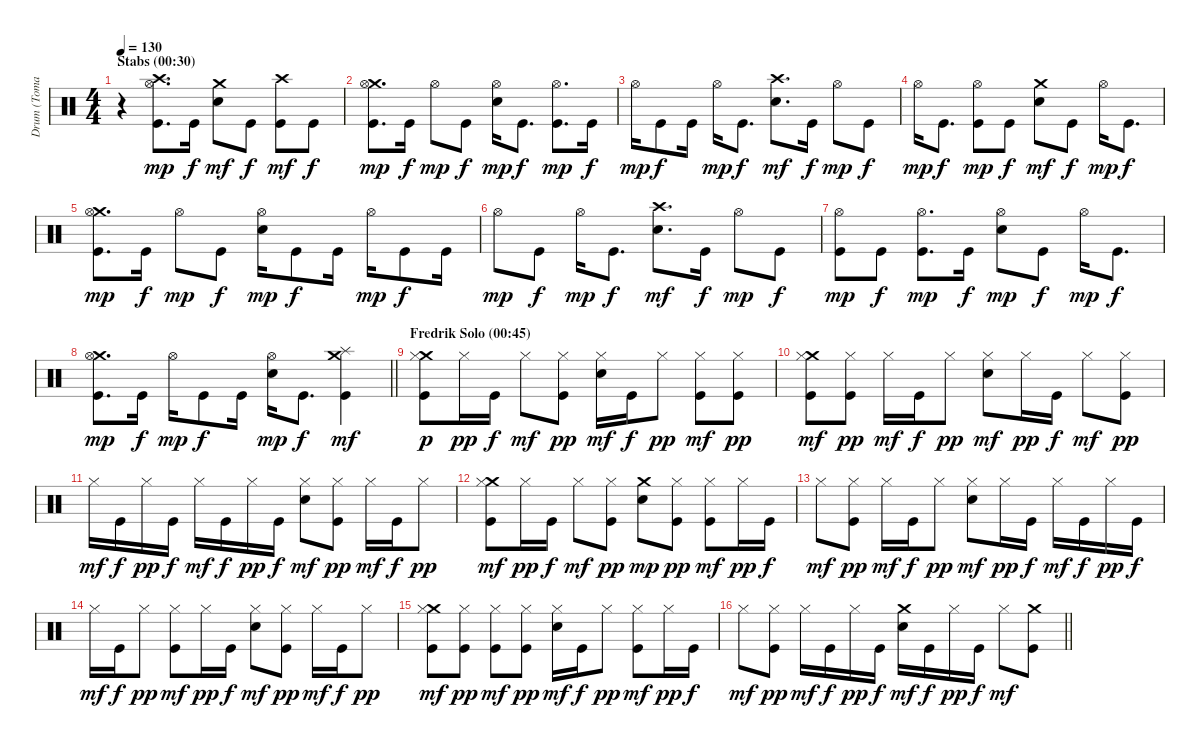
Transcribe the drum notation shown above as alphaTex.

\track ("Drum (Tomas Haake)" "Drum (Toma") {instrument percussion}
\staff {score}
\articulation defaults
\ts (4 4)
\section ("" "Stabs (00:30)")
\tempo 130
\clef neutral
\ks c
r.4{dy p} ("Crash high (hit)" "Hi-Hat (open)" "Kick (hit)").8{d dy mp} "Kick (hit)".16{dy f} ("Crash medium (hit)" "Electric Snare (hit)").8{dy mf} "Kick (hit)".8{dy f} ("Crash high (hit)" "Kick (hit)").8{dy mf} "Kick (hit)".8{dy f} |
("Crash medium (hit)" "Hi-Hat (open)" "Kick (hit)").8{d dy mp} "Kick (hit)".16{dy f} "Hi-Hat (open)".8{dy mp} "Kick (hit)".8{dy f} ("Hi-Hat (open)" "Electric Snare (hit)").16{dy mp} "Kick (hit)".8{d dy f} ("Hi-Hat (open)" "Kick (hit)").8{d dy mp} "Kick (hit)".16{dy f} |
"Hi-Hat (open)".16{dy mp} "Kick (hit)".8{dy f} "Kick (hit)".16 "Hi-Hat (open)".16{dy mp} "Kick (hit)".8{d dy f} ("Crash high (hit)" "Electric Snare (hit)").8{d dy mf} "Kick (hit)".16{dy f} "Hi-Hat (open)".8{dy mp} "Kick (hit)".8{dy f} |
"Hi-Hat (open)".16{dy mp} "Kick (hit)".8{d dy f} ("Hi-Hat (open)" "Kick (hit)").8{dy mp} "Kick (hit)".8{dy f} ("Crash medium (hit)" "Electric Snare (hit)").8{dy mf} "Kick (hit)".8{dy f} "Hi-Hat (open)".16{dy mp} "Kick (hit)".8{d dy f} |
("Crash medium (hit)" "Hi-Hat (open)" "Kick (hit)").8{d dy mp} "Kick (hit)".16{dy f} "Hi-Hat (open)".8{dy mp} "Kick (hit)".8{dy f} ("Hi-Hat (open)" "Electric Snare (hit)").16{dy mp} "Kick (hit)".8{dy f} "Kick (hit)".16 "Hi-Hat (open)".16{dy mp} "Kick (hit)".8{dy f} "Kick (hit)".16 |
"Hi-Hat (open)".8{dy mp} "Kick (hit)".8{dy f} "Hi-Hat (open)".16{dy mp} "Kick (hit)".8{d dy f} ("Crash high (hit)" "Electric Snare (hit)").8{d dy mf} "Kick (hit)".16{dy f} "Hi-Hat (open)".8{dy mp} "Kick (hit)".8{dy f} |
("Hi-Hat (open)" "Kick (hit)").8{dy mp} "Kick (hit)".8{dy f} ("Hi-Hat (open)" "Kick (hit)").8{d dy mp} "Kick (hit)".16{dy f} ("Hi-Hat (open)" "Electric Snare (hit)").8{dy mp} "Kick (hit)".8{dy f} "Hi-Hat (open)".16{dy mp} "Kick (hit)".8{d dy f} |
\barLineRight lightlight
("Crash medium (hit)" "Hi-Hat (open)" "Kick (hit)").8{d dy mp} "Kick (hit)".16{dy f} "Hi-Hat (open)".16{dy mp} "Kick (hit)".8{dy f} "Kick (hit)".16 ("Hi-Hat (open)" "Electric Snare (hit)").16{dy mp} "Kick (hit)".8{d dy f} ("Crash medium (hit)" "Splash (hit)" "Kick (hit)").4{dy mf} |
\section ("" "Fredrik Solo (00:45)")
("Crash medium (hit)" "Hi-Hat (closed)" "Kick (hit)").8{dy p} "Hi-Hat (closed)".16{dy pp} "Kick (hit)".16{dy f} "Hi-Hat (closed)".8{dy mf} ("Hi-Hat (closed)" "Kick (hit)").8{dy pp} ("Hi-Hat (closed)" "Electric Snare (hit)").16{dy mf} "Kick (hit)".16{dy f} "Hi-Hat (closed)".8{dy pp} ("Hi-Hat (closed)" "Kick (hit)").8{dy mf} ("Hi-Hat (closed)" "Kick (hit)").8{dy pp} |
("Crash medium (hit)" "Hi-Hat (closed)" "Kick (hit)").8{dy mf} ("Hi-Hat (closed)" "Kick (hit)").8{dy pp} "Hi-Hat (closed)".16{dy mf} "Kick (hit)".16{dy f} "Hi-Hat (closed)".8{dy pp} ("Hi-Hat (closed)" "Electric Snare (hit)").8{dy mf} "Hi-Hat (closed)".16{dy pp} "Kick (hit)".16{dy f} "Hi-Hat (closed)".8{dy mf} ("Hi-Hat (closed)" "Kick (hit)").8{dy pp} |
"Hi-Hat (closed)".16{dy mf} "Kick (hit)".16{dy f} "Hi-Hat (closed)".16{dy pp} "Kick (hit)".16{dy f} "Hi-Hat (closed)".16{dy mf} "Kick (hit)".16{dy f} "Hi-Hat (closed)".16{dy pp} "Kick (hit)".16{dy f} ("Hi-Hat (closed)" "Electric Snare (hit)").8{dy mf} ("Hi-Hat (closed)" "Kick (hit)").8{dy pp} "Hi-Hat (closed)".16{dy mf} "Kick (hit)".16{dy f} "Hi-Hat (closed)".8{dy pp} |
("Crash medium (hit)" "Hi-Hat (closed)" "Kick (hit)").8{dy mf} "Hi-Hat (closed)".16{dy pp} "Kick (hit)".16{dy f} "Hi-Hat (closed)".8{dy mf} ("Hi-Hat (closed)" "Kick (hit)").8{dy pp} ("Crash medium (hit)" "Electric Snare (hit)").8{dy mp} ("Hi-Hat (closed)" "Kick (hit)").8{dy pp} ("Hi-Hat (closed)" "Kick (hit)").8{dy mf} "Hi-Hat (closed)".16{dy pp} "Kick (hit)".16{dy f} |
"Hi-Hat (closed)".8{dy mf} ("Hi-Hat (closed)" "Kick (hit)").8{dy pp} "Hi-Hat (closed)".16{dy mf} "Kick (hit)".16{dy f} "Hi-Hat (closed)".8{dy pp} ("Hi-Hat (closed)" "Electric Snare (hit)").8{dy mf} "Hi-Hat (closed)".16{dy pp} "Kick (hit)".16{dy f} "Hi-Hat (closed)".16{dy mf} "Kick (hit)".16{dy f} "Hi-Hat (closed)".16{dy pp} "Kick (hit)".16{dy f} |
"Hi-Hat (closed)".16{dy mf} "Kick (hit)".16{dy f} "Hi-Hat (closed)".8{dy pp} ("Hi-Hat (closed)" "Kick (hit)").8{dy mf} "Hi-Hat (closed)".16{dy pp} "Kick (hit)".16{dy f} ("Hi-Hat (closed)" "Electric Snare (hit)").8{dy mf} ("Hi-Hat (closed)" "Kick (hit)").8{dy pp} "Hi-Hat (closed)".16{dy mf} "Kick (hit)".16{dy f} "Hi-Hat (closed)".8{dy pp} |
("Crash medium (hit)" "Hi-Hat (closed)" "Kick (hit)").8{dy mf} ("Hi-Hat (closed)" "Kick (hit)").8{dy pp} ("Hi-Hat (closed)" "Kick (hit)").8{dy mf} ("Hi-Hat (closed)" "Kick (hit)").8{dy pp} ("Hi-Hat (closed)" "Electric Snare (hit)").16{dy mf} "Kick (hit)".16{dy f} "Hi-Hat (closed)".8{dy pp} ("Hi-Hat (closed)" "Kick (hit)").8{dy mf} "Hi-Hat (closed)".16{dy pp} "Kick (hit)".16{dy f} |
\barLineRight lightlight "Hi-Hat (closed)".8{dy mf}
("Hi-Hat (closed)" "Kick (hit)").8{dy pp} "Hi-Hat (closed)".16{dy mf} "Kick (hit)".16{dy f} "Hi-Hat (closed)".16{dy pp} "Kick (hit)".16{dy f} ("Crash medium (hit)" "Electric Snare (hit)").16{dy mf} "Kick (hit)".16{dy f} "Hi-Hat (closed)".16{dy pp} "Kick (hit)".16{dy f} "Hi-Hat (closed)".8{dy mf} ("Crash medium (hit)" "Kick (hit)").8
